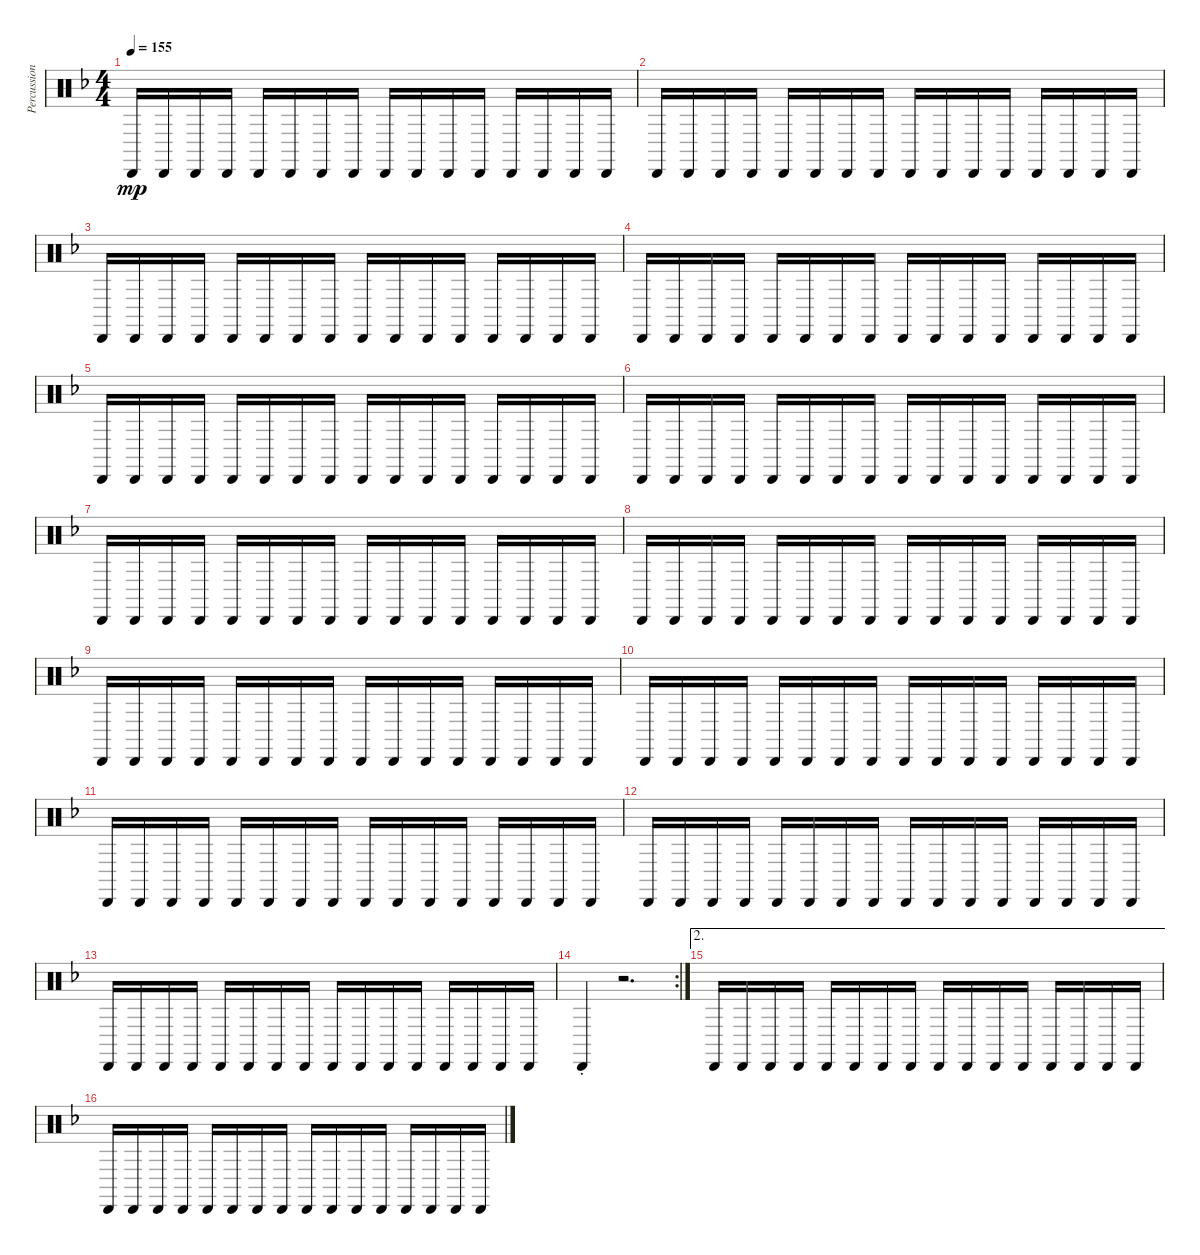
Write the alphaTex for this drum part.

\track ("Percussion" "Percussion") {instrument percussion}
\staff {score}
\articulation defaults
\ts (4 4)
\tempo 155
\clef neutral
\ks dminor "Cabasa (hit)".16{dy mp} "Cabasa (hit)".16 "Cabasa (hit)".16 "Cabasa (hit)".16 "Cabasa (hit)".16 "Cabasa (hit)".16 "Cabasa (hit)".16 "Cabasa (hit)".16 "Cabasa (hit)".16 "Cabasa (hit)".16 "Cabasa (hit)".16 "Cabasa (hit)".16 "Cabasa (hit)".16 "Cabasa (hit)".16 "Cabasa (hit)".16 "Cabasa (hit)".16
|
"Cabasa (hit)".16 "Cabasa (hit)".16 "Cabasa (hit)".16 "Cabasa (hit)".16 "Cabasa (hit)".16 "Cabasa (hit)".16 "Cabasa (hit)".16 "Cabasa (hit)".16 "Cabasa (hit)".16 "Cabasa (hit)".16 "Cabasa (hit)".16 "Cabasa (hit)".16 "Cabasa (hit)".16 "Cabasa (hit)".16 "Cabasa (hit)".16 "Cabasa (hit)".16 |
"Cabasa (hit)".16 "Cabasa (hit)".16 "Cabasa (hit)".16 "Cabasa (hit)".16 "Cabasa (hit)".16 "Cabasa (hit)".16 "Cabasa (hit)".16 "Cabasa (hit)".16 "Cabasa (hit)".16 "Cabasa (hit)".16 "Cabasa (hit)".16 "Cabasa (hit)".16 "Cabasa (hit)".16 "Cabasa (hit)".16 "Cabasa (hit)".16 "Cabasa (hit)".16 |
"Cabasa (hit)".16 "Cabasa (hit)".16 "Cabasa (hit)".16 "Cabasa (hit)".16 "Cabasa (hit)".16 "Cabasa (hit)".16 "Cabasa (hit)".16 "Cabasa (hit)".16 "Cabasa (hit)".16 "Cabasa (hit)".16 "Cabasa (hit)".16 "Cabasa (hit)".16 "Cabasa (hit)".16 "Cabasa (hit)".16 "Cabasa (hit)".16 "Cabasa (hit)".16 |
"Cabasa (hit)".16 "Cabasa (hit)".16 "Cabasa (hit)".16 "Cabasa (hit)".16 "Cabasa (hit)".16 "Cabasa (hit)".16 "Cabasa (hit)".16 "Cabasa (hit)".16 "Cabasa (hit)".16 "Cabasa (hit)".16 "Cabasa (hit)".16 "Cabasa (hit)".16 "Cabasa (hit)".16 "Cabasa (hit)".16 "Cabasa (hit)".16 "Cabasa (hit)".16 |
"Cabasa (hit)".16 "Cabasa (hit)".16 "Cabasa (hit)".16 "Cabasa (hit)".16 "Cabasa (hit)".16 "Cabasa (hit)".16 "Cabasa (hit)".16 "Cabasa (hit)".16 "Cabasa (hit)".16 "Cabasa (hit)".16 "Cabasa (hit)".16 "Cabasa (hit)".16 "Cabasa (hit)".16 "Cabasa (hit)".16 "Cabasa (hit)".16 "Cabasa (hit)".16 |
"Cabasa (hit)".16 "Cabasa (hit)".16 "Cabasa (hit)".16 "Cabasa (hit)".16 "Cabasa (hit)".16 "Cabasa (hit)".16 "Cabasa (hit)".16 "Cabasa (hit)".16 "Cabasa (hit)".16 "Cabasa (hit)".16 "Cabasa (hit)".16 "Cabasa (hit)".16 "Cabasa (hit)".16 "Cabasa (hit)".16 "Cabasa (hit)".16 "Cabasa (hit)".16 |
"Cabasa (hit)".16 "Cabasa (hit)".16 "Cabasa (hit)".16 "Cabasa (hit)".16 "Cabasa (hit)".16 "Cabasa (hit)".16 "Cabasa (hit)".16 "Cabasa (hit)".16 "Cabasa (hit)".16 "Cabasa (hit)".16 "Cabasa (hit)".16 "Cabasa (hit)".16 "Cabasa (hit)".16 "Cabasa (hit)".16 "Cabasa (hit)".16 "Cabasa (hit)".16 |
"Cabasa (hit)".16 "Cabasa (hit)".16 "Cabasa (hit)".16 "Cabasa (hit)".16 "Cabasa (hit)".16 "Cabasa (hit)".16 "Cabasa (hit)".16 "Cabasa (hit)".16 "Cabasa (hit)".16 "Cabasa (hit)".16 "Cabasa (hit)".16 "Cabasa (hit)".16 "Cabasa (hit)".16 "Cabasa (hit)".16 "Cabasa (hit)".16 "Cabasa (hit)".16 |
"Cabasa (hit)".16 "Cabasa (hit)".16 "Cabasa (hit)".16 "Cabasa (hit)".16 "Cabasa (hit)".16 "Cabasa (hit)".16 "Cabasa (hit)".16 "Cabasa (hit)".16 "Cabasa (hit)".16 "Cabasa (hit)".16 "Cabasa (hit)".16 "Cabasa (hit)".16 "Cabasa (hit)".16 "Cabasa (hit)".16 "Cabasa (hit)".16 "Cabasa (hit)".16 |
"Cabasa (hit)".16 "Cabasa (hit)".16 "Cabasa (hit)".16 "Cabasa (hit)".16 "Cabasa (hit)".16 "Cabasa (hit)".16 "Cabasa (hit)".16 "Cabasa (hit)".16 "Cabasa (hit)".16 "Cabasa (hit)".16 "Cabasa (hit)".16 "Cabasa (hit)".16 "Cabasa (hit)".16 "Cabasa (hit)".16 "Cabasa (hit)".16 "Cabasa (hit)".16 |
"Cabasa (hit)".16 "Cabasa (hit)".16 "Cabasa (hit)".16 "Cabasa (hit)".16 "Cabasa (hit)".16 "Cabasa (hit)".16 "Cabasa (hit)".16 "Cabasa (hit)".16 "Cabasa (hit)".16 "Cabasa (hit)".16 "Cabasa (hit)".16 "Cabasa (hit)".16 "Cabasa (hit)".16 "Cabasa (hit)".16 "Cabasa (hit)".16 "Cabasa (hit)".16 |
"Cabasa (hit)".16 "Cabasa (hit)".16 "Cabasa (hit)".16 "Cabasa (hit)".16 "Cabasa (hit)".16 "Cabasa (hit)".16 "Cabasa (hit)".16 "Cabasa (hit)".16 "Cabasa (hit)".16 "Cabasa (hit)".16 "Cabasa (hit)".16 "Cabasa (hit)".16 "Cabasa (hit)".16 "Cabasa (hit)".16 "Cabasa (hit)".16 "Cabasa (hit)".16 |
\rc 2 "Cabasa (hit)"{st}.4
r.2{d} |
\ae 2 "Cabasa (hit)".16 "Cabasa (hit)".16 "Cabasa (hit)".16 "Cabasa (hit)".16 "Cabasa (hit)".16 "Cabasa (hit)".16 "Cabasa (hit)".16 "Cabasa (hit)".16 "Cabasa (hit)".16 "Cabasa (hit)".16 "Cabasa (hit)".16 "Cabasa (hit)".16 "Cabasa (hit)".16 "Cabasa (hit)".16 "Cabasa (hit)".16 "Cabasa (hit)".16
|
"Cabasa (hit)".16 "Cabasa (hit)".16 "Cabasa (hit)".16 "Cabasa (hit)".16 "Cabasa (hit)".16 "Cabasa (hit)".16 "Cabasa (hit)".16 "Cabasa (hit)".16 "Cabasa (hit)".16 "Cabasa (hit)".16 "Cabasa (hit)".16 "Cabasa (hit)".16 "Cabasa (hit)".16 "Cabasa (hit)".16 "Cabasa (hit)".16 "Cabasa (hit)".16
